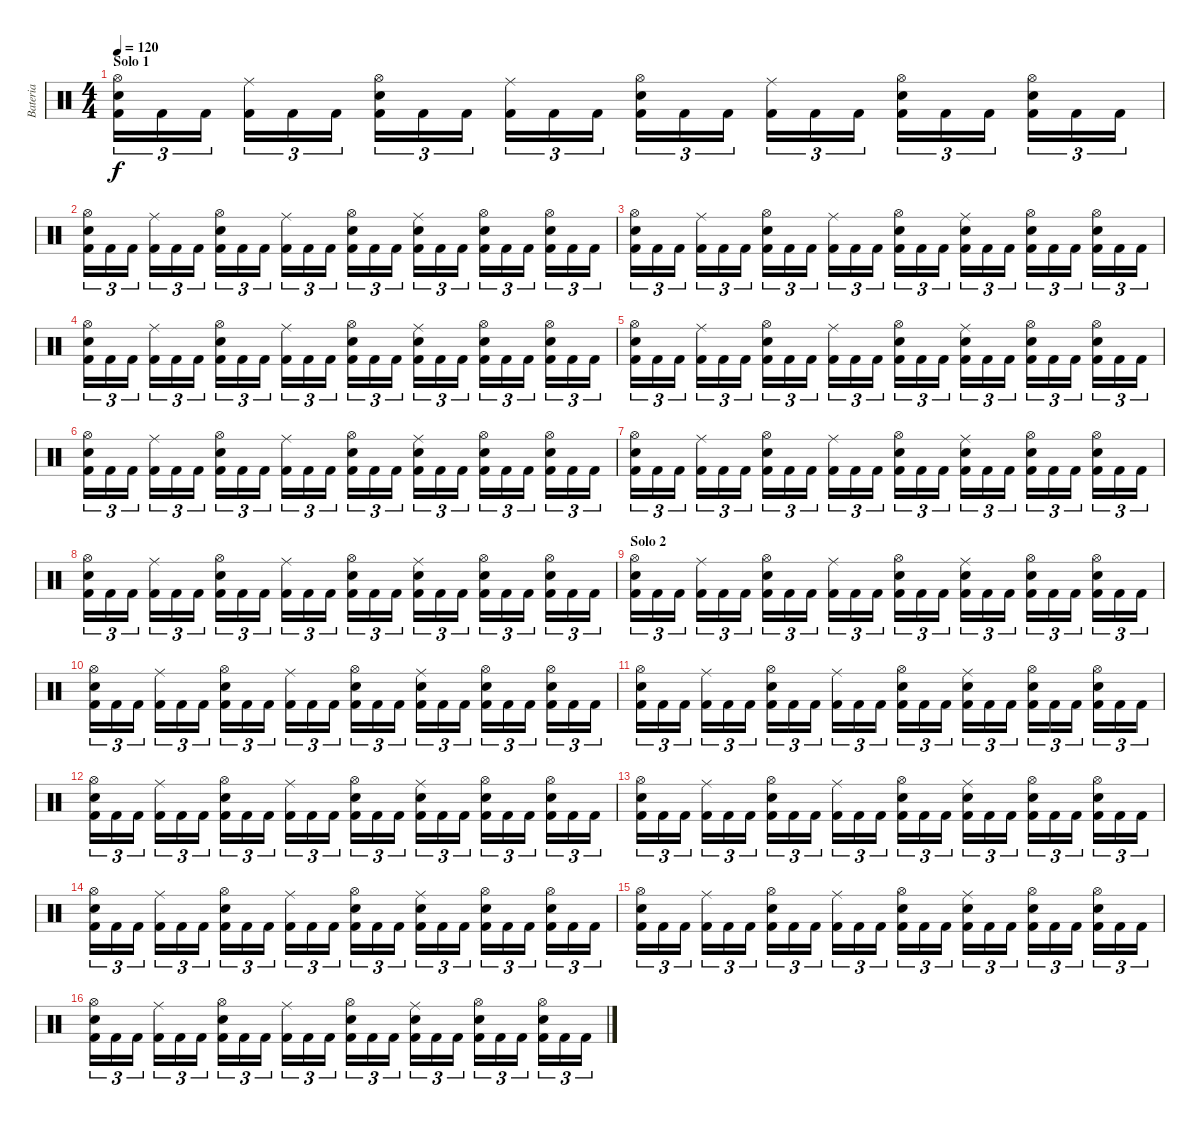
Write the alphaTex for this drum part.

\track ("Bateria" "Bateria") {instrument percussion}
\staff {score}
\articulation defaults
\ts (4 4)
\section ("" "Solo 1")
\tempo 120
\clef neutral
\ks c
("Hi-Hat (open)" "Snare (hit) 2" "Kick (hit) 2").16{tu (3 2) dy f} "Kick (hit) 2".16{tu (3 2)} "Kick (hit) 2".16{tu (3 2)} ("Ride (middle)" "Kick (hit) 2").16{tu (3 2)} "Kick (hit) 2".16{tu (3 2)} "Kick (hit) 2".16{tu (3 2)} ("Hi-Hat (open)" "Electric Snare (hit)" "Kick (hit) 2").16{tu (3 2)} "Kick (hit) 2".16{tu (3 2)} "Kick (hit) 2".16{tu (3 2)} ("Ride (middle)" "Kick (hit) 2").16{tu (3 2)} "Kick (hit) 2".16{tu (3 2)} "Kick (hit) 2".16{tu (3 2)} ("Hi-Hat (open)" "Snare (hit) 2" "Kick (hit) 2").16{tu (3 2)} "Kick (hit) 2".16{tu (3 2)} "Kick (hit) 2".16{tu (3 2)} ("Ride (middle)" "Kick (hit) 2").16{tu (3 2)} "Kick (hit) 2".16{tu (3 2)} "Kick (hit) 2".16{tu (3 2)} ("Hi-Hat (open)" "Snare (hit) 2" "Kick (hit) 2").16{tu (3 2)} "Kick (hit) 2".16{tu (3 2)} "Kick (hit) 2".16{tu (3 2)} ("Hi-Hat (open)" "Snare (hit) 2" "Kick (hit) 2").16{tu (3 2)} "Kick (hit) 2".16{tu (3 2)} "Kick (hit) 2".16{tu (3 2)} |
("Hi-Hat (open)" "Snare (hit) 2" "Kick (hit) 2").16{tu (3 2)} "Kick (hit) 2".16{tu (3 2)} "Kick (hit) 2".16{tu (3 2)} ("Ride (middle)" "Kick (hit) 2").16{tu (3 2)} "Kick (hit) 2".16{tu (3 2)} "Kick (hit) 2".16{tu (3 2)} ("Hi-Hat (open)" "Electric Snare (hit)" "Kick (hit) 2").16{tu (3 2)} "Kick (hit) 2".16{tu (3 2)} "Kick (hit) 2".16{tu (3 2)} ("Ride (middle)" "Kick (hit) 2").16{tu (3 2)} "Kick (hit) 2".16{tu (3 2)} "Kick (hit) 2".16{tu (3 2)} ("Hi-Hat (open)" "Snare (hit) 2" "Kick (hit) 2").16{tu (3 2)} "Kick (hit) 2".16{tu (3 2)} "Kick (hit) 2".16{tu (3 2)} ("Ride (middle)" "Snare (hit) 2" "Kick (hit) 2").16{tu (3 2)} "Kick (hit) 2".16{tu (3 2)} "Kick (hit) 2".16{tu (3 2)} ("Hi-Hat (open)" "Snare (hit) 2" "Kick (hit) 2").16{tu (3 2)} "Kick (hit) 2".16{tu (3 2)} "Kick (hit) 2".16{tu (3 2)} ("Hi-Hat (open)" "Snare (hit) 2" "Kick (hit) 2").16{tu (3 2)} "Kick (hit) 2".16{tu (3 2)} "Kick (hit) 2".16{tu (3 2)} |
("Hi-Hat (open)" "Snare (hit) 2" "Kick (hit) 2").16{tu (3 2)} "Kick (hit) 2".16{tu (3 2)} "Kick (hit) 2".16{tu (3 2)} ("Ride (middle)" "Kick (hit) 2").16{tu (3 2)} "Kick (hit) 2".16{tu (3 2)} "Kick (hit) 2".16{tu (3 2)} ("Hi-Hat (open)" "Electric Snare (hit)" "Kick (hit) 2").16{tu (3 2)} "Kick (hit) 2".16{tu (3 2)} "Kick (hit) 2".16{tu (3 2)} ("Ride (middle)" "Kick (hit) 2").16{tu (3 2)} "Kick (hit) 2".16{tu (3 2)} "Kick (hit) 2".16{tu (3 2)} ("Hi-Hat (open)" "Snare (hit) 2" "Kick (hit) 2").16{tu (3 2)} "Kick (hit) 2".16{tu (3 2)} "Kick (hit) 2".16{tu (3 2)} ("Ride (middle)" "Snare (hit) 2" "Kick (hit) 2").16{tu (3 2)} "Kick (hit) 2".16{tu (3 2)} "Kick (hit) 2".16{tu (3 2)} ("Hi-Hat (open)" "Snare (hit) 2" "Kick (hit) 2").16{tu (3 2)} "Kick (hit) 2".16{tu (3 2)} "Kick (hit) 2".16{tu (3 2)} ("Hi-Hat (open)" "Snare (hit) 2" "Kick (hit) 2").16{tu (3 2)} "Kick (hit) 2".16{tu (3 2)} "Kick (hit) 2".16{tu (3 2)} |
("Hi-Hat (open)" "Snare (hit) 2" "Kick (hit) 2").16{tu (3 2)} "Kick (hit) 2".16{tu (3 2)} "Kick (hit) 2".16{tu (3 2)} ("Ride (middle)" "Kick (hit) 2").16{tu (3 2)} "Kick (hit) 2".16{tu (3 2)} "Kick (hit) 2".16{tu (3 2)} ("Hi-Hat (open)" "Electric Snare (hit)" "Kick (hit) 2").16{tu (3 2)} "Kick (hit) 2".16{tu (3 2)} "Kick (hit) 2".16{tu (3 2)} ("Ride (middle)" "Kick (hit) 2").16{tu (3 2)} "Kick (hit) 2".16{tu (3 2)} "Kick (hit) 2".16{tu (3 2)} ("Hi-Hat (open)" "Snare (hit) 2" "Kick (hit) 2").16{tu (3 2)} "Kick (hit) 2".16{tu (3 2)} "Kick (hit) 2".16{tu (3 2)} ("Ride (middle)" "Snare (hit) 2" "Kick (hit) 2").16{tu (3 2)} "Kick (hit) 2".16{tu (3 2)} "Kick (hit) 2".16{tu (3 2)} ("Hi-Hat (open)" "Snare (hit) 2" "Kick (hit) 2").16{tu (3 2)} "Kick (hit) 2".16{tu (3 2)} "Kick (hit) 2".16{tu (3 2)} ("Hi-Hat (open)" "Snare (hit) 2" "Kick (hit) 2").16{tu (3 2)} "Kick (hit) 2".16{tu (3 2)} "Kick (hit) 2".16{tu (3 2)} |
("Hi-Hat (open)" "Snare (hit) 2" "Kick (hit) 2").16{tu (3 2)} "Kick (hit) 2".16{tu (3 2)} "Kick (hit) 2".16{tu (3 2)} ("Ride (middle)" "Kick (hit) 2").16{tu (3 2)} "Kick (hit) 2".16{tu (3 2)} "Kick (hit) 2".16{tu (3 2)} ("Hi-Hat (open)" "Electric Snare (hit)" "Kick (hit) 2").16{tu (3 2)} "Kick (hit) 2".16{tu (3 2)} "Kick (hit) 2".16{tu (3 2)} ("Ride (middle)" "Kick (hit) 2").16{tu (3 2)} "Kick (hit) 2".16{tu (3 2)} "Kick (hit) 2".16{tu (3 2)} ("Hi-Hat (open)" "Snare (hit) 2" "Kick (hit) 2").16{tu (3 2)} "Kick (hit) 2".16{tu (3 2)} "Kick (hit) 2".16{tu (3 2)} ("Ride (middle)" "Snare (hit) 2" "Kick (hit) 2").16{tu (3 2)} "Kick (hit) 2".16{tu (3 2)} "Kick (hit) 2".16{tu (3 2)} ("Hi-Hat (open)" "Snare (hit) 2" "Kick (hit) 2").16{tu (3 2)} "Kick (hit) 2".16{tu (3 2)} "Kick (hit) 2".16{tu (3 2)} ("Hi-Hat (open)" "Snare (hit) 2" "Kick (hit) 2").16{tu (3 2)} "Kick (hit) 2".16{tu (3 2)} "Kick (hit) 2".16{tu (3 2)} |
("Hi-Hat (open)" "Snare (hit) 2" "Kick (hit) 2").16{tu (3 2)} "Kick (hit) 2".16{tu (3 2)} "Kick (hit) 2".16{tu (3 2)} ("Ride (middle)" "Kick (hit) 2").16{tu (3 2)} "Kick (hit) 2".16{tu (3 2)} "Kick (hit) 2".16{tu (3 2)} ("Hi-Hat (open)" "Electric Snare (hit)" "Kick (hit) 2").16{tu (3 2)} "Kick (hit) 2".16{tu (3 2)} "Kick (hit) 2".16{tu (3 2)} ("Ride (middle)" "Kick (hit) 2").16{tu (3 2)} "Kick (hit) 2".16{tu (3 2)} "Kick (hit) 2".16{tu (3 2)} ("Hi-Hat (open)" "Snare (hit) 2" "Kick (hit) 2").16{tu (3 2)} "Kick (hit) 2".16{tu (3 2)} "Kick (hit) 2".16{tu (3 2)} ("Ride (middle)" "Snare (hit) 2" "Kick (hit) 2").16{tu (3 2)} "Kick (hit) 2".16{tu (3 2)} "Kick (hit) 2".16{tu (3 2)} ("Hi-Hat (open)" "Snare (hit) 2" "Kick (hit) 2").16{tu (3 2)} "Kick (hit) 2".16{tu (3 2)} "Kick (hit) 2".16{tu (3 2)} ("Hi-Hat (open)" "Snare (hit) 2" "Kick (hit) 2").16{tu (3 2)} "Kick (hit) 2".16{tu (3 2)} "Kick (hit) 2".16{tu (3 2)} |
("Hi-Hat (open)" "Snare (hit) 2" "Kick (hit) 2").16{tu (3 2)} "Kick (hit) 2".16{tu (3 2)} "Kick (hit) 2".16{tu (3 2)} ("Ride (middle)" "Kick (hit) 2").16{tu (3 2)} "Kick (hit) 2".16{tu (3 2)} "Kick (hit) 2".16{tu (3 2)} ("Hi-Hat (open)" "Electric Snare (hit)" "Kick (hit) 2").16{tu (3 2)} "Kick (hit) 2".16{tu (3 2)} "Kick (hit) 2".16{tu (3 2)} ("Ride (middle)" "Kick (hit) 2").16{tu (3 2)} "Kick (hit) 2".16{tu (3 2)} "Kick (hit) 2".16{tu (3 2)} ("Hi-Hat (open)" "Snare (hit) 2" "Kick (hit) 2").16{tu (3 2)} "Kick (hit) 2".16{tu (3 2)} "Kick (hit) 2".16{tu (3 2)} ("Ride (middle)" "Snare (hit) 2" "Kick (hit) 2").16{tu (3 2)} "Kick (hit) 2".16{tu (3 2)} "Kick (hit) 2".16{tu (3 2)} ("Hi-Hat (open)" "Snare (hit) 2" "Kick (hit) 2").16{tu (3 2)} "Kick (hit) 2".16{tu (3 2)} "Kick (hit) 2".16{tu (3 2)} ("Hi-Hat (open)" "Snare (hit) 2" "Kick (hit) 2").16{tu (3 2)} "Kick (hit) 2".16{tu (3 2)} "Kick (hit) 2".16{tu (3 2)} |
("Hi-Hat (open)" "Snare (hit) 2" "Kick (hit) 2").16{tu (3 2)} "Kick (hit) 2".16{tu (3 2)} "Kick (hit) 2".16{tu (3 2)} ("Ride (middle)" "Kick (hit) 2").16{tu (3 2)} "Kick (hit) 2".16{tu (3 2)} "Kick (hit) 2".16{tu (3 2)} ("Hi-Hat (open)" "Electric Snare (hit)" "Kick (hit) 2").16{tu (3 2)} "Kick (hit) 2".16{tu (3 2)} "Kick (hit) 2".16{tu (3 2)} ("Ride (middle)" "Kick (hit) 2").16{tu (3 2)} "Kick (hit) 2".16{tu (3 2)} "Kick (hit) 2".16{tu (3 2)} ("Hi-Hat (open)" "Snare (hit) 2" "Kick (hit) 2").16{tu (3 2)} "Kick (hit) 2".16{tu (3 2)} "Kick (hit) 2".16{tu (3 2)} ("Ride (middle)" "Snare (hit) 2" "Kick (hit) 2").16{tu (3 2)} "Kick (hit) 2".16{tu (3 2)} "Kick (hit) 2".16{tu (3 2)} ("Hi-Hat (open)" "Snare (hit) 2" "Kick (hit) 2").16{tu (3 2)} "Kick (hit) 2".16{tu (3 2)} "Kick (hit) 2".16{tu (3 2)} ("Hi-Hat (open)" "Snare (hit) 2" "Kick (hit) 2").16{tu (3 2)} "Kick (hit) 2".16{tu (3 2)} "Kick (hit) 2".16{tu (3 2)} |
\section ("" "Solo 2")
("Hi-Hat (open)" "Snare (hit) 2" "Kick (hit) 2").16{tu (3 2)} "Kick (hit) 2".16{tu (3 2)} "Kick (hit) 2".16{tu (3 2)} ("Ride (middle)" "Kick (hit) 2").16{tu (3 2)} "Kick (hit) 2".16{tu (3 2)} "Kick (hit) 2".16{tu (3 2)} ("Hi-Hat (open)" "Electric Snare (hit)" "Kick (hit) 2").16{tu (3 2)} "Kick (hit) 2".16{tu (3 2)} "Kick (hit) 2".16{tu (3 2)} ("Ride (middle)" "Kick (hit) 2").16{tu (3 2)} "Kick (hit) 2".16{tu (3 2)} "Kick (hit) 2".16{tu (3 2)} ("Hi-Hat (open)" "Snare (hit) 2" "Kick (hit) 2").16{tu (3 2)} "Kick (hit) 2".16{tu (3 2)} "Kick (hit) 2".16{tu (3 2)} ("Ride (middle)" "Snare (hit) 2" "Kick (hit) 2").16{tu (3 2)} "Kick (hit) 2".16{tu (3 2)} "Kick (hit) 2".16{tu (3 2)} ("Hi-Hat (open)" "Snare (hit) 2" "Kick (hit) 2").16{tu (3 2)} "Kick (hit) 2".16{tu (3 2)} "Kick (hit) 2".16{tu (3 2)} ("Hi-Hat (open)" "Snare (hit) 2" "Kick (hit) 2").16{tu (3 2)} "Kick (hit) 2".16{tu (3 2)} "Kick (hit) 2".16{tu (3 2)} |
("Hi-Hat (open)" "Snare (hit) 2" "Kick (hit) 2").16{tu (3 2)} "Kick (hit) 2".16{tu (3 2)} "Kick (hit) 2".16{tu (3 2)} ("Ride (middle)" "Kick (hit) 2").16{tu (3 2)} "Kick (hit) 2".16{tu (3 2)} "Kick (hit) 2".16{tu (3 2)} ("Hi-Hat (open)" "Electric Snare (hit)" "Kick (hit) 2").16{tu (3 2)} "Kick (hit) 2".16{tu (3 2)} "Kick (hit) 2".16{tu (3 2)} ("Ride (middle)" "Kick (hit) 2").16{tu (3 2)} "Kick (hit) 2".16{tu (3 2)} "Kick (hit) 2".16{tu (3 2)} ("Hi-Hat (open)" "Snare (hit) 2" "Kick (hit) 2").16{tu (3 2)} "Kick (hit) 2".16{tu (3 2)} "Kick (hit) 2".16{tu (3 2)} ("Ride (middle)" "Snare (hit) 2" "Kick (hit) 2").16{tu (3 2)} "Kick (hit) 2".16{tu (3 2)} "Kick (hit) 2".16{tu (3 2)} ("Hi-Hat (open)" "Snare (hit) 2" "Kick (hit) 2").16{tu (3 2)} "Kick (hit) 2".16{tu (3 2)} "Kick (hit) 2".16{tu (3 2)} ("Hi-Hat (open)" "Snare (hit) 2" "Kick (hit) 2").16{tu (3 2)} "Kick (hit) 2".16{tu (3 2)} "Kick (hit) 2".16{tu (3 2)} |
("Hi-Hat (open)" "Snare (hit) 2" "Kick (hit) 2").16{tu (3 2)} "Kick (hit) 2".16{tu (3 2)} "Kick (hit) 2".16{tu (3 2)} ("Ride (middle)" "Kick (hit) 2").16{tu (3 2)} "Kick (hit) 2".16{tu (3 2)} "Kick (hit) 2".16{tu (3 2)} ("Hi-Hat (open)" "Electric Snare (hit)" "Kick (hit) 2").16{tu (3 2)} "Kick (hit) 2".16{tu (3 2)} "Kick (hit) 2".16{tu (3 2)} ("Ride (middle)" "Kick (hit) 2").16{tu (3 2)} "Kick (hit) 2".16{tu (3 2)} "Kick (hit) 2".16{tu (3 2)} ("Hi-Hat (open)" "Snare (hit) 2" "Kick (hit) 2").16{tu (3 2)} "Kick (hit) 2".16{tu (3 2)} "Kick (hit) 2".16{tu (3 2)} ("Ride (middle)" "Snare (hit) 2" "Kick (hit) 2").16{tu (3 2)} "Kick (hit) 2".16{tu (3 2)} "Kick (hit) 2".16{tu (3 2)} ("Hi-Hat (open)" "Snare (hit) 2" "Kick (hit) 2").16{tu (3 2)} "Kick (hit) 2".16{tu (3 2)} "Kick (hit) 2".16{tu (3 2)} ("Hi-Hat (open)" "Snare (hit) 2" "Kick (hit) 2").16{tu (3 2)} "Kick (hit) 2".16{tu (3 2)} "Kick (hit) 2".16{tu (3 2)} |
("Hi-Hat (open)" "Snare (hit) 2" "Kick (hit) 2").16{tu (3 2)} "Kick (hit) 2".16{tu (3 2)} "Kick (hit) 2".16{tu (3 2)} ("Ride (middle)" "Kick (hit) 2").16{tu (3 2)} "Kick (hit) 2".16{tu (3 2)} "Kick (hit) 2".16{tu (3 2)} ("Hi-Hat (open)" "Electric Snare (hit)" "Kick (hit) 2").16{tu (3 2)} "Kick (hit) 2".16{tu (3 2)} "Kick (hit) 2".16{tu (3 2)} ("Ride (middle)" "Kick (hit) 2").16{tu (3 2)} "Kick (hit) 2".16{tu (3 2)} "Kick (hit) 2".16{tu (3 2)} ("Hi-Hat (open)" "Snare (hit) 2" "Kick (hit) 2").16{tu (3 2)} "Kick (hit) 2".16{tu (3 2)} "Kick (hit) 2".16{tu (3 2)} ("Ride (middle)" "Snare (hit) 2" "Kick (hit) 2").16{tu (3 2)} "Kick (hit) 2".16{tu (3 2)} "Kick (hit) 2".16{tu (3 2)} ("Hi-Hat (open)" "Snare (hit) 2" "Kick (hit) 2").16{tu (3 2)} "Kick (hit) 2".16{tu (3 2)} "Kick (hit) 2".16{tu (3 2)} ("Hi-Hat (open)" "Snare (hit) 2" "Kick (hit) 2").16{tu (3 2)} "Kick (hit) 2".16{tu (3 2)} "Kick (hit) 2".16{tu (3 2)} |
("Hi-Hat (open)" "Snare (hit) 2" "Kick (hit) 2").16{tu (3 2)} "Kick (hit) 2".16{tu (3 2)} "Kick (hit) 2".16{tu (3 2)} ("Ride (middle)" "Kick (hit) 2").16{tu (3 2)} "Kick (hit) 2".16{tu (3 2)} "Kick (hit) 2".16{tu (3 2)} ("Hi-Hat (open)" "Electric Snare (hit)" "Kick (hit) 2").16{tu (3 2)} "Kick (hit) 2".16{tu (3 2)} "Kick (hit) 2".16{tu (3 2)} ("Ride (middle)" "Kick (hit) 2").16{tu (3 2)} "Kick (hit) 2".16{tu (3 2)} "Kick (hit) 2".16{tu (3 2)} ("Hi-Hat (open)" "Snare (hit) 2" "Kick (hit) 2").16{tu (3 2)} "Kick (hit) 2".16{tu (3 2)} "Kick (hit) 2".16{tu (3 2)} ("Ride (middle)" "Snare (hit) 2" "Kick (hit) 2").16{tu (3 2)} "Kick (hit) 2".16{tu (3 2)} "Kick (hit) 2".16{tu (3 2)} ("Hi-Hat (open)" "Snare (hit) 2" "Kick (hit) 2").16{tu (3 2)} "Kick (hit) 2".16{tu (3 2)} "Kick (hit) 2".16{tu (3 2)} ("Hi-Hat (open)" "Snare (hit) 2" "Kick (hit) 2").16{tu (3 2)} "Kick (hit) 2".16{tu (3 2)} "Kick (hit) 2".16{tu (3 2)} |
("Hi-Hat (open)" "Snare (hit) 2" "Kick (hit) 2").16{tu (3 2)} "Kick (hit) 2".16{tu (3 2)} "Kick (hit) 2".16{tu (3 2)} ("Ride (middle)" "Kick (hit) 2").16{tu (3 2)} "Kick (hit) 2".16{tu (3 2)} "Kick (hit) 2".16{tu (3 2)} ("Hi-Hat (open)" "Electric Snare (hit)" "Kick (hit) 2").16{tu (3 2)} "Kick (hit) 2".16{tu (3 2)} "Kick (hit) 2".16{tu (3 2)} ("Ride (middle)" "Kick (hit) 2").16{tu (3 2)} "Kick (hit) 2".16{tu (3 2)} "Kick (hit) 2".16{tu (3 2)} ("Hi-Hat (open)" "Snare (hit) 2" "Kick (hit) 2").16{tu (3 2)} "Kick (hit) 2".16{tu (3 2)} "Kick (hit) 2".16{tu (3 2)} ("Ride (middle)" "Snare (hit) 2" "Kick (hit) 2").16{tu (3 2)} "Kick (hit) 2".16{tu (3 2)} "Kick (hit) 2".16{tu (3 2)} ("Hi-Hat (open)" "Snare (hit) 2" "Kick (hit) 2").16{tu (3 2)} "Kick (hit) 2".16{tu (3 2)} "Kick (hit) 2".16{tu (3 2)} ("Hi-Hat (open)" "Snare (hit) 2" "Kick (hit) 2").16{tu (3 2)} "Kick (hit) 2".16{tu (3 2)} "Kick (hit) 2".16{tu (3 2)} |
("Hi-Hat (open)" "Snare (hit) 2" "Kick (hit) 2").16{tu (3 2)} "Kick (hit) 2".16{tu (3 2)} "Kick (hit) 2".16{tu (3 2)} ("Ride (middle)" "Kick (hit) 2").16{tu (3 2)} "Kick (hit) 2".16{tu (3 2)} "Kick (hit) 2".16{tu (3 2)} ("Hi-Hat (open)" "Electric Snare (hit)" "Kick (hit) 2").16{tu (3 2)} "Kick (hit) 2".16{tu (3 2)} "Kick (hit) 2".16{tu (3 2)} ("Ride (middle)" "Kick (hit) 2").16{tu (3 2)} "Kick (hit) 2".16{tu (3 2)} "Kick (hit) 2".16{tu (3 2)} ("Hi-Hat (open)" "Snare (hit) 2" "Kick (hit) 2").16{tu (3 2)} "Kick (hit) 2".16{tu (3 2)} "Kick (hit) 2".16{tu (3 2)} ("Ride (middle)" "Snare (hit) 2" "Kick (hit) 2").16{tu (3 2)} "Kick (hit) 2".16{tu (3 2)} "Kick (hit) 2".16{tu (3 2)} ("Hi-Hat (open)" "Snare (hit) 2" "Kick (hit) 2").16{tu (3 2)} "Kick (hit) 2".16{tu (3 2)} "Kick (hit) 2".16{tu (3 2)} ("Hi-Hat (open)" "Snare (hit) 2" "Kick (hit) 2").16{tu (3 2)} "Kick (hit) 2".16{tu (3 2)} "Kick (hit) 2".16{tu (3 2)} |
("Hi-Hat (open)" "Snare (hit) 2" "Kick (hit) 2").16{tu (3 2)} "Kick (hit) 2".16{tu (3 2)} "Kick (hit) 2".16{tu (3 2)} ("Ride (middle)" "Kick (hit) 2").16{tu (3 2)} "Kick (hit) 2".16{tu (3 2)} "Kick (hit) 2".16{tu (3 2)} ("Hi-Hat (open)" "Electric Snare (hit)" "Kick (hit) 2").16{tu (3 2)} "Kick (hit) 2".16{tu (3 2)} "Kick (hit) 2".16{tu (3 2)} ("Ride (middle)" "Kick (hit) 2").16{tu (3 2)} "Kick (hit) 2".16{tu (3 2)} "Kick (hit) 2".16{tu (3 2)} ("Hi-Hat (open)" "Snare (hit) 2" "Kick (hit) 2").16{tu (3 2)} "Kick (hit) 2".16{tu (3 2)} "Kick (hit) 2".16{tu (3 2)} ("Ride (middle)" "Snare (hit) 2" "Kick (hit) 2").16{tu (3 2)} "Kick (hit) 2".16{tu (3 2)} "Kick (hit) 2".16{tu (3 2)} ("Hi-Hat (open)" "Snare (hit) 2" "Kick (hit) 2").16{tu (3 2)} "Kick (hit) 2".16{tu (3 2)} "Kick (hit) 2".16{tu (3 2)} ("Hi-Hat (open)" "Snare (hit) 2" "Kick (hit) 2").16{tu (3 2)} "Kick (hit) 2".16{tu (3 2)} "Kick (hit) 2".16{tu (3 2)}
